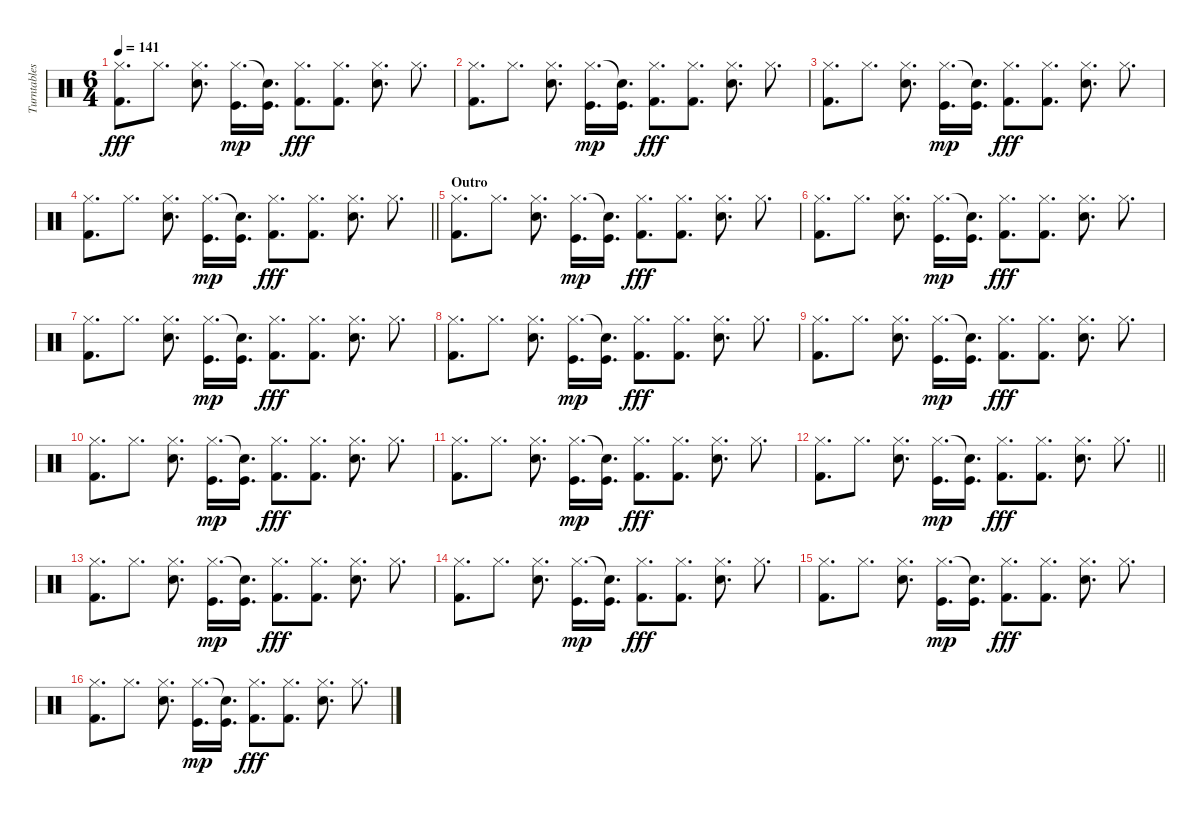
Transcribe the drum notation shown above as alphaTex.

\track ("Turntables" "Turntables") {instrument percussion}
\staff {score}
\articulation defaults
\ts (6 4)
\tempo 141
\clef neutral
\ks c
("Hi-Hat (closed)" "Kick (hit) 2").8{d dy fff} "Hi-Hat (closed)".8{d} ("Hi-Hat (closed)" "Electric Snare (hit)").8{d} ("Hi-Hat (closed)" "Kick (hit)").16{d dy mp} ("Snare (hit)"{t} "Kick (hit)").16{d} ("Hi-Hat (closed)" "Kick (hit) 2").8{d dy fff} ("Hi-Hat (closed)" "Kick (hit) 2").8{d} ("Hi-Hat (closed)" "Electric Snare (hit)").8{d} "Hi-Hat (closed)".8{d} |
("Hi-Hat (closed)" "Kick (hit) 2").8{d} "Hi-Hat (closed)".8{d} ("Hi-Hat (closed)" "Electric Snare (hit)").8{d} ("Hi-Hat (closed)" "Kick (hit)").16{d dy mp} ("Snare (hit)"{t} "Kick (hit)").16{d} ("Hi-Hat (closed)" "Kick (hit) 2").8{d dy fff} ("Hi-Hat (closed)" "Kick (hit) 2").8{d} ("Hi-Hat (closed)" "Electric Snare (hit)").8{d} "Hi-Hat (closed)".8{d} |
("Hi-Hat (closed)" "Kick (hit) 2").8{d} "Hi-Hat (closed)".8{d} ("Hi-Hat (closed)" "Electric Snare (hit)").8{d} ("Hi-Hat (closed)" "Kick (hit)").16{d dy mp} ("Snare (hit)"{t} "Kick (hit)").16{d} ("Hi-Hat (closed)" "Kick (hit) 2").8{d dy fff} ("Hi-Hat (closed)" "Kick (hit) 2").8{d} ("Hi-Hat (closed)" "Electric Snare (hit)").8{d} "Hi-Hat (closed)".8{d} |
\barLineRight lightlight
("Hi-Hat (closed)" "Kick (hit) 2").8{d} "Hi-Hat (closed)".8{d} ("Hi-Hat (closed)" "Electric Snare (hit)").8{d} ("Hi-Hat (closed)" "Kick (hit)").16{d dy mp} ("Snare (hit)"{t} "Kick (hit)").16{d} ("Hi-Hat (closed)" "Kick (hit) 2").8{d dy fff} ("Hi-Hat (closed)" "Kick (hit) 2").8{d} ("Hi-Hat (closed)" "Electric Snare (hit)").8{d} "Hi-Hat (closed)".8{d} |
\section ("" "Outro")
("Hi-Hat (closed)" "Kick (hit) 2").8{d} "Hi-Hat (closed)".8{d} ("Hi-Hat (closed)" "Electric Snare (hit)").8{d} ("Hi-Hat (closed)" "Kick (hit)").16{d dy mp} ("Snare (hit)"{t} "Kick (hit)").16{d} ("Hi-Hat (closed)" "Kick (hit) 2").8{d dy fff} ("Hi-Hat (closed)" "Kick (hit) 2").8{d} ("Hi-Hat (closed)" "Electric Snare (hit)").8{d} "Hi-Hat (closed)".8{d} |
("Hi-Hat (closed)" "Kick (hit) 2").8{d} "Hi-Hat (closed)".8{d} ("Hi-Hat (closed)" "Electric Snare (hit)").8{d} ("Hi-Hat (closed)" "Kick (hit)").16{d dy mp} ("Snare (hit)"{t} "Kick (hit)").16{d} ("Hi-Hat (closed)" "Kick (hit) 2").8{d dy fff} ("Hi-Hat (closed)" "Kick (hit) 2").8{d} ("Hi-Hat (closed)" "Electric Snare (hit)").8{d} "Hi-Hat (closed)".8{d} |
("Hi-Hat (closed)" "Kick (hit) 2").8{d} "Hi-Hat (closed)".8{d} ("Hi-Hat (closed)" "Electric Snare (hit)").8{d} ("Hi-Hat (closed)" "Kick (hit)").16{d dy mp} ("Snare (hit)"{t} "Kick (hit)").16{d} ("Hi-Hat (closed)" "Kick (hit) 2").8{d dy fff} ("Hi-Hat (closed)" "Kick (hit) 2").8{d} ("Hi-Hat (closed)" "Electric Snare (hit)").8{d} "Hi-Hat (closed)".8{d} |
("Hi-Hat (closed)" "Kick (hit) 2").8{d} "Hi-Hat (closed)".8{d} ("Hi-Hat (closed)" "Electric Snare (hit)").8{d} ("Hi-Hat (closed)" "Kick (hit)").16{d dy mp} ("Snare (hit)"{t} "Kick (hit)").16{d} ("Hi-Hat (closed)" "Kick (hit) 2").8{d dy fff} ("Hi-Hat (closed)" "Kick (hit) 2").8{d} ("Hi-Hat (closed)" "Electric Snare (hit)").8{d} "Hi-Hat (closed)".8{d} |
("Hi-Hat (closed)" "Kick (hit) 2").8{d} "Hi-Hat (closed)".8{d} ("Hi-Hat (closed)" "Electric Snare (hit)").8{d} ("Hi-Hat (closed)" "Kick (hit)").16{d dy mp} ("Snare (hit)"{t} "Kick (hit)").16{d} ("Hi-Hat (closed)" "Kick (hit) 2").8{d dy fff} ("Hi-Hat (closed)" "Kick (hit) 2").8{d} ("Hi-Hat (closed)" "Electric Snare (hit)").8{d} "Hi-Hat (closed)".8{d} |
("Hi-Hat (closed)" "Kick (hit) 2").8{d} "Hi-Hat (closed)".8{d} ("Hi-Hat (closed)" "Electric Snare (hit)").8{d} ("Hi-Hat (closed)" "Kick (hit)").16{d dy mp} ("Snare (hit)"{t} "Kick (hit)").16{d} ("Hi-Hat (closed)" "Kick (hit) 2").8{d dy fff} ("Hi-Hat (closed)" "Kick (hit) 2").8{d} ("Hi-Hat (closed)" "Electric Snare (hit)").8{d} "Hi-Hat (closed)".8{d} |
("Hi-Hat (closed)" "Kick (hit) 2").8{d} "Hi-Hat (closed)".8{d} ("Hi-Hat (closed)" "Electric Snare (hit)").8{d} ("Hi-Hat (closed)" "Kick (hit)").16{d dy mp} ("Snare (hit)"{t} "Kick (hit)").16{d} ("Hi-Hat (closed)" "Kick (hit) 2").8{d dy fff} ("Hi-Hat (closed)" "Kick (hit) 2").8{d} ("Hi-Hat (closed)" "Electric Snare (hit)").8{d} "Hi-Hat (closed)".8{d} |
\barLineRight lightlight
("Hi-Hat (closed)" "Kick (hit) 2").8{d} "Hi-Hat (closed)".8{d} ("Hi-Hat (closed)" "Electric Snare (hit)").8{d} ("Hi-Hat (closed)" "Kick (hit)").16{d dy mp} ("Snare (hit)"{t} "Kick (hit)").16{d} ("Hi-Hat (closed)" "Kick (hit) 2").8{d dy fff} ("Hi-Hat (closed)" "Kick (hit) 2").8{d} ("Hi-Hat (closed)" "Electric Snare (hit)").8{d} "Hi-Hat (closed)".8{d} |
("Hi-Hat (closed)" "Kick (hit) 2").8{d} "Hi-Hat (closed)".8{d} ("Hi-Hat (closed)" "Electric Snare (hit)").8{d} ("Hi-Hat (closed)" "Kick (hit)").16{d dy mp} ("Snare (hit)"{t} "Kick (hit)").16{d} ("Hi-Hat (closed)" "Kick (hit) 2").8{d dy fff} ("Hi-Hat (closed)" "Kick (hit) 2").8{d} ("Hi-Hat (closed)" "Electric Snare (hit)").8{d} "Hi-Hat (closed)".8{d} |
("Hi-Hat (closed)" "Kick (hit) 2").8{d} "Hi-Hat (closed)".8{d} ("Hi-Hat (closed)" "Electric Snare (hit)").8{d} ("Hi-Hat (closed)" "Kick (hit)").16{d dy mp} ("Snare (hit)"{t} "Kick (hit)").16{d} ("Hi-Hat (closed)" "Kick (hit) 2").8{d dy fff} ("Hi-Hat (closed)" "Kick (hit) 2").8{d} ("Hi-Hat (closed)" "Electric Snare (hit)").8{d} "Hi-Hat (closed)".8{d} |
("Hi-Hat (closed)" "Kick (hit) 2").8{d} "Hi-Hat (closed)".8{d} ("Hi-Hat (closed)" "Electric Snare (hit)").8{d} ("Hi-Hat (closed)" "Kick (hit)").16{d dy mp} ("Snare (hit)"{t} "Kick (hit)").16{d} ("Hi-Hat (closed)" "Kick (hit) 2").8{d dy fff} ("Hi-Hat (closed)" "Kick (hit) 2").8{d} ("Hi-Hat (closed)" "Electric Snare (hit)").8{d} "Hi-Hat (closed)".8{d} |
("Hi-Hat (closed)" "Kick (hit) 2").8{d} "Hi-Hat (closed)".8{d} ("Hi-Hat (closed)" "Electric Snare (hit)").8{d} ("Hi-Hat (closed)" "Kick (hit)").16{d dy mp} ("Snare (hit)"{t} "Kick (hit)").16{d} ("Hi-Hat (closed)" "Kick (hit) 2").8{d dy fff} ("Hi-Hat (closed)" "Kick (hit) 2").8{d} ("Hi-Hat (closed)" "Electric Snare (hit)").8{d} "Hi-Hat (closed)".8{d}
